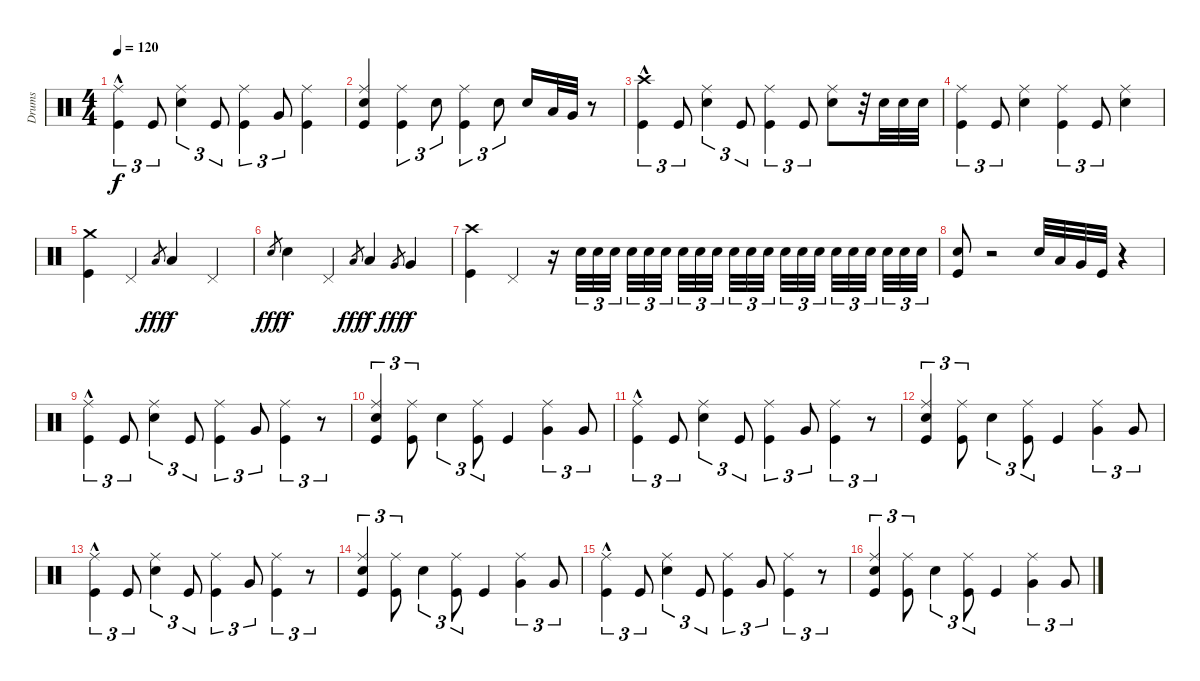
\track ("Drums" "Drums") {instrument percussion}
\staff {score}
\articulation defaults
\ts (4 4)
\tempo 120
\clef neutral
\ks c
("Kick (hit)"{hac} "Ride (middle)").4{tu (3 2) dy f} "Kick (hit)".8{tu (3 2)} ("Snare (hit) 2" "Ride (middle)").4{tu (3 2)} "Kick (hit)".8{tu (3 2)} ("Kick (hit)" "Ride (middle)").4{tu (3 2)} "Very Low Tom (hit)".8{tu (3 2)} ("Kick (hit)" "Ride (middle)").4 |
("Kick (hit)" "Snare (hit) 2" "Ride (middle)").4 ("Kick (hit)" "Ride (middle)").4{tu (3 2)} "Snare (hit) 2".8{tu (3 2)} ("Kick (hit)" "Ride (middle)").4{tu (3 2)} "Snare (hit) 2".8{tu (3 2)} "Snare (hit) 2".16 "Low Tom (hit)".32 "Very Low Tom (hit)".32 r.8 |
("Kick (hit)"{hac} "Crash high (hit)").4{tu (3 2)} "Kick (hit)".8{tu (3 2)} ("Snare (hit) 2" "Ride (middle)").4{tu (3 2)} "Kick (hit)".8{tu (3 2)} ("Kick (hit)" "Ride (middle)").4{tu (3 2)} "Kick (hit)".8{tu (3 2)} ("Snare (hit) 2" "Ride (middle)").8 r.32 "Snare (hit) 2".32 "Snare (hit) 2".32 "Snare (hit) 2".32 |
("Kick (hit)" "Ride (middle)").4{tu (3 2)} "Kick (hit)".8{tu (3 2)} ("Snare (hit) 2" "Ride (middle)").4 ("Kick (hit)" "Ride (middle)").4{tu (3 2)} "Kick (hit)".8{tu (3 2)} ("Snare (hit) 2" "Ride (middle)").4 |
("Kick (hit)" "Crash medium (hit)").4 "Pedal Hi-Hat (hit)".4 "Low Tom (hit)".8{gr dy fff} "Low Tom (hit)".4{dy f} "Pedal Hi-Hat (hit)".4 |
"Snare (hit) 2".8{gr dy fff} "Snare (hit) 2".4{dy f} "Pedal Hi-Hat (hit)".4 "Low Tom (hit)".8{gr dy fff} "Low Tom (hit)".4{dy f} "Very Low Tom (hit)".8{gr dy fff} "Very Low Tom (hit)".4{dy f} |
("Kick (hit)" "Crash high (hit)").4 "Pedal Hi-Hat (hit)".4 r.16 "Snare (hit) 2".32{tu (3 2)} "Snare (hit) 2".32{tu (3 2)} "Snare (hit) 2".32{tu (3 2)} "Snare (hit) 2".32{tu (3 2)} "Snare (hit) 2".32{tu (3 2)} "Snare (hit) 2".32{tu (3 2)} "Snare (hit) 2".32{tu (3 2)} "Snare (hit) 2".32{tu (3 2)} "Snare (hit) 2".32{tu (3 2)} "Snare (hit) 2".32{tu (3 2)} "Snare (hit) 2".32{tu (3 2)} "Snare (hit) 2".32{tu (3 2)} "Snare (hit) 2".32{tu (3 2)} "Snare (hit) 2".32{tu (3 2)} "Snare (hit) 2".32{tu (3 2)} "Snare (hit) 2".32{tu (3 2)} "Snare (hit) 2".32{tu (3 2)} "Snare (hit) 2".32{tu (3 2)} "Snare (hit) 2".32{tu (3 2)} "Snare (hit) 2".32{tu (3 2)} "Snare (hit) 2".32{tu (3 2)} |
("Kick (hit)" "Snare (hit) 2").8 r.2 "Snare (hit) 2".32 "Low Tom (hit)".32 "Very Low Tom (hit)".32 "Kick (hit)".32 r.4 |
("Kick (hit)"{hac} "Ride (middle)").4{tu (3 2)} "Kick (hit)".8{tu (3 2)} ("Snare (hit) 2" "Ride (middle)").4{tu (3 2)} "Kick (hit)".8{tu (3 2)} ("Kick (hit)" "Ride (middle)").4{tu (3 2)} "Very Low Tom (hit)".8{tu (3 2)} ("Kick (hit)" "Ride (middle)").4{tu (3 2)} r.8{tu (3 2)} |
("Kick (hit)" "Snare (hit) 2" "Ride (middle)").4{tu (3 2)} ("Kick (hit)" "Ride (middle)").8{tu (3 2)} "Snare (hit) 2".4{tu (3 2)} ("Kick (hit)" "Ride (middle)").8{tu (3 2)} "Kick (hit)".4 ("Very Low Tom (hit)" "Ride (middle)").4{tu (3 2)} "Very Low Tom (hit)".8{tu (3 2)} |
("Kick (hit)"{hac} "Ride (middle)").4{tu (3 2)} "Kick (hit)".8{tu (3 2)} ("Snare (hit) 2" "Ride (middle)").4{tu (3 2)} "Kick (hit)".8{tu (3 2)} ("Kick (hit)" "Ride (middle)").4{tu (3 2)} "Very Low Tom (hit)".8{tu (3 2)} ("Kick (hit)" "Ride (middle)").4{tu (3 2)} r.8{tu (3 2)} |
("Kick (hit)" "Snare (hit) 2" "Ride (middle)").4{tu (3 2)} ("Kick (hit)" "Ride (middle)").8{tu (3 2)} "Snare (hit) 2".4{tu (3 2)} ("Kick (hit)" "Ride (middle)").8{tu (3 2)} "Kick (hit)".4 ("Very Low Tom (hit)" "Ride (middle)").4{tu (3 2)} "Very Low Tom (hit)".8{tu (3 2)} |
("Kick (hit)"{hac} "Ride (middle)").4{tu (3 2)} "Kick (hit)".8{tu (3 2)} ("Snare (hit) 2" "Ride (middle)").4{tu (3 2)} "Kick (hit)".8{tu (3 2)} ("Kick (hit)" "Ride (middle)").4{tu (3 2)} "Very Low Tom (hit)".8{tu (3 2)} ("Kick (hit)" "Ride (middle)").4{tu (3 2)} r.8{tu (3 2)} |
("Kick (hit)" "Snare (hit) 2" "Ride (middle)").4{tu (3 2)} ("Kick (hit)" "Ride (middle)").8{tu (3 2)} "Snare (hit) 2".4{tu (3 2)} ("Kick (hit)" "Ride (middle)").8{tu (3 2)} "Kick (hit)".4 ("Very Low Tom (hit)" "Ride (middle)").4{tu (3 2)} "Very Low Tom (hit)".8{tu (3 2)} |
("Kick (hit)"{hac} "Ride (middle)").4{tu (3 2)} "Kick (hit)".8{tu (3 2)} ("Snare (hit) 2" "Ride (middle)").4{tu (3 2)} "Kick (hit)".8{tu (3 2)} ("Kick (hit)" "Ride (middle)").4{tu (3 2)} "Very Low Tom (hit)".8{tu (3 2)} ("Kick (hit)" "Ride (middle)").4{tu (3 2)} r.8{tu (3 2)} |
("Kick (hit)" "Snare (hit) 2" "Ride (middle)").4{tu (3 2)} ("Kick (hit)" "Ride (middle)").8{tu (3 2)} "Snare (hit) 2".4{tu (3 2)} ("Kick (hit)" "Ride (middle)").8{tu (3 2)} "Kick (hit)".4 ("Very Low Tom (hit)" "Ride (middle)").4{tu (3 2)} "Very Low Tom (hit)".8{tu (3 2)}
